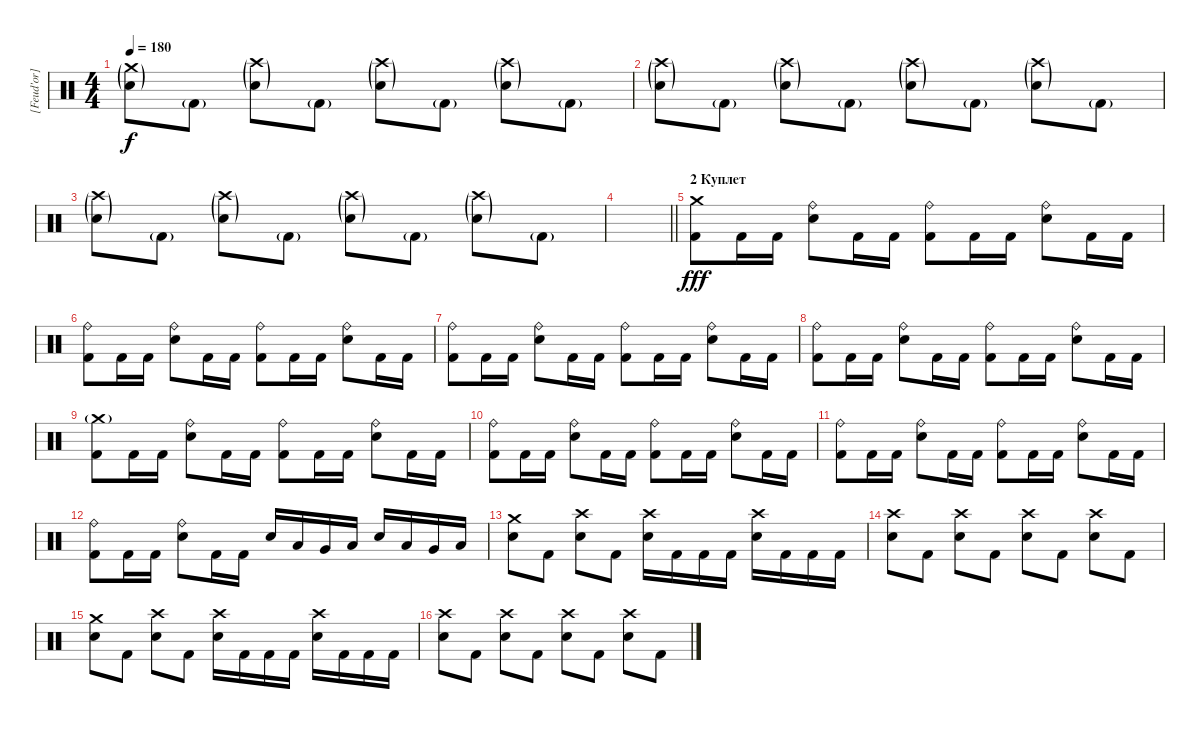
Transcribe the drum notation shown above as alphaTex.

\track ("[Feud'or] - Drums" "[Feud'or] ") {instrument percussion}
\staff {score}
\articulation defaults
\ts (4 4)
\tempo 180
\clef neutral
\ks c
("Crash medium (hit)"{g} "Electric Snare (hit)"{g}).8{dy f} "Kick (hit) 2"{g}.8 ("Crash high (hit)"{g} "Electric Snare (hit)"{g}).8 "Kick (hit) 2"{g}.8 ("Crash high (hit)"{g} "Electric Snare (hit)"{g}).8 "Kick (hit) 2"{g}.8 ("Crash high (hit)"{g} "Electric Snare (hit)"{g}).8 "Kick (hit) 2"{g}.8 |
("Crash high (hit)"{g} "Electric Snare (hit)"{g}).8 "Kick (hit) 2"{g}.8 ("Crash high (hit)"{g} "Electric Snare (hit)"{g}).8 "Kick (hit) 2"{g}.8 ("Crash high (hit)"{g} "Electric Snare (hit)"{g}).8 "Kick (hit) 2"{g}.8 ("Crash high (hit)"{g} "Electric Snare (hit)"{g}).8 "Kick (hit) 2"{g}.8 |
("Crash high (hit)"{g} "Electric Snare (hit)"{g}).8 "Kick (hit) 2"{g}.8 ("Crash high (hit)"{g} "Electric Snare (hit)"{g}).8 "Kick (hit) 2"{g}.8 ("Crash high (hit)"{g} "Electric Snare (hit)"{g}).8 "Kick (hit) 2"{g}.8 ("Crash high (hit)"{g} "Electric Snare (hit)"{g}).8 "Kick (hit) 2"{g}.8 |
\barLineRight lightlight
|
\section ("" "2 Куплет")
("Crash medium (hit)" "Kick (hit) 2").8{dy fff} "Kick (hit) 2".16 "Kick (hit) 2".16 ("Ride (bell)" "Electric Snare (hit)").8 "Kick (hit) 2".16 "Kick (hit) 2".16 ("Ride (bell)" "Kick (hit) 2").8 "Kick (hit) 2".16 "Kick (hit) 2".16 ("Ride (bell)" "Electric Snare (hit)").8 "Kick (hit) 2".16 "Kick (hit) 2".16 |
("Ride (bell)" "Kick (hit) 2").8 "Kick (hit) 2".16 "Kick (hit) 2".16 ("Ride (bell)" "Electric Snare (hit)").8 "Kick (hit) 2".16 "Kick (hit) 2".16 ("Ride (bell)" "Kick (hit) 2").8 "Kick (hit) 2".16 "Kick (hit) 2".16 ("Ride (bell)" "Electric Snare (hit)").8 "Kick (hit) 2".16 "Kick (hit) 2".16 |
("Ride (bell)" "Kick (hit) 2").8 "Kick (hit) 2".16 "Kick (hit) 2".16 ("Ride (bell)" "Electric Snare (hit)").8 "Kick (hit) 2".16 "Kick (hit) 2".16 ("Ride (bell)" "Kick (hit) 2").8 "Kick (hit) 2".16 "Kick (hit) 2".16 ("Ride (bell)" "Electric Snare (hit)").8 "Kick (hit) 2".16 "Kick (hit) 2".16 |
("Ride (bell)" "Kick (hit) 2").8 "Kick (hit) 2".16 "Kick (hit) 2".16 ("Ride (bell)" "Electric Snare (hit)").8 "Kick (hit) 2".16 "Kick (hit) 2".16 ("Ride (bell)" "Kick (hit) 2").8 "Kick (hit) 2".16 "Kick (hit) 2".16 ("Ride (bell)" "Electric Snare (hit)").8 "Kick (hit) 2".16 "Kick (hit) 2".16 |
("Crash medium (hit)"{g} "Kick (hit) 2").8 "Kick (hit) 2".16 "Kick (hit) 2".16 ("Ride (bell)" "Electric Snare (hit)").8 "Kick (hit) 2".16 "Kick (hit) 2".16 ("Ride (bell)" "Kick (hit) 2").8 "Kick (hit) 2".16 "Kick (hit) 2".16 ("Ride (bell)" "Electric Snare (hit)").8 "Kick (hit) 2".16 "Kick (hit) 2".16 |
("Ride (bell)" "Kick (hit) 2").8 "Kick (hit) 2".16 "Kick (hit) 2".16 ("Ride (bell)" "Electric Snare (hit)").8 "Kick (hit) 2".16 "Kick (hit) 2".16 ("Ride (bell)" "Kick (hit) 2").8 "Kick (hit) 2".16 "Kick (hit) 2".16 ("Ride (bell)" "Electric Snare (hit)").8 "Kick (hit) 2".16 "Kick (hit) 2".16 |
("Ride (bell)" "Kick (hit) 2").8 "Kick (hit) 2".16 "Kick (hit) 2".16 ("Ride (bell)" "Electric Snare (hit)").8 "Kick (hit) 2".16 "Kick (hit) 2".16 ("Ride (bell)" "Kick (hit) 2").8 "Kick (hit) 2".16 "Kick (hit) 2".16 ("Ride (bell)" "Electric Snare (hit)").8 "Kick (hit) 2".16 "Kick (hit) 2".16 |
("Ride (bell)" "Kick (hit) 2").8 "Kick (hit) 2".16 "Kick (hit) 2".16 ("Ride (bell)" "Electric Snare (hit)").8 "Kick (hit) 2".16 "Kick (hit) 2".16 "Electric Snare (hit)".16 "Low Tom (hit)".16 "Very Low Tom (hit)".16 "Low Floor Tom (hit)".16 "Electric Snare (hit)".16 "Low Tom (hit)".16 "Very Low Tom (hit)".16 "Low Floor Tom (hit)".16 |
("Crash medium (hit)" "Electric Snare (hit)").8 "Kick (hit) 2".8 ("Crash high (hit)" "Electric Snare (hit)").8 "Kick (hit) 2".8 ("Crash high (hit)" "Electric Snare (hit)").16 "Kick (hit) 2".16 "Kick (hit) 2".16 "Kick (hit) 2".16 ("Crash high (hit)" "Electric Snare (hit)").16 "Kick (hit) 2".16 "Kick (hit) 2".16 "Kick (hit) 2".16 |
("Crash high (hit)" "Electric Snare (hit)").8 "Kick (hit) 2".8 ("Crash high (hit)" "Electric Snare (hit)").8 "Kick (hit) 2".8 ("Crash high (hit)" "Electric Snare (hit)").8 "Kick (hit) 2".8 ("Crash high (hit)" "Electric Snare (hit)").8 "Kick (hit) 2".8 |
("Crash medium (hit)" "Electric Snare (hit)").8 "Kick (hit) 2".8 ("Crash high (hit)" "Electric Snare (hit)").8 "Kick (hit) 2".8 ("Crash high (hit)" "Electric Snare (hit)").16 "Kick (hit) 2".16 "Kick (hit) 2".16 "Kick (hit) 2".16 ("Crash high (hit)" "Electric Snare (hit)").16 "Kick (hit) 2".16 "Kick (hit) 2".16 "Kick (hit) 2".16 |
("Crash high (hit)" "Electric Snare (hit)").8 "Kick (hit) 2".8 ("Crash high (hit)" "Electric Snare (hit)").8 "Kick (hit) 2".8 ("Crash high (hit)" "Electric Snare (hit)").8 "Kick (hit) 2".8 ("Crash high (hit)" "Electric Snare (hit)").8 "Kick (hit) 2".8
